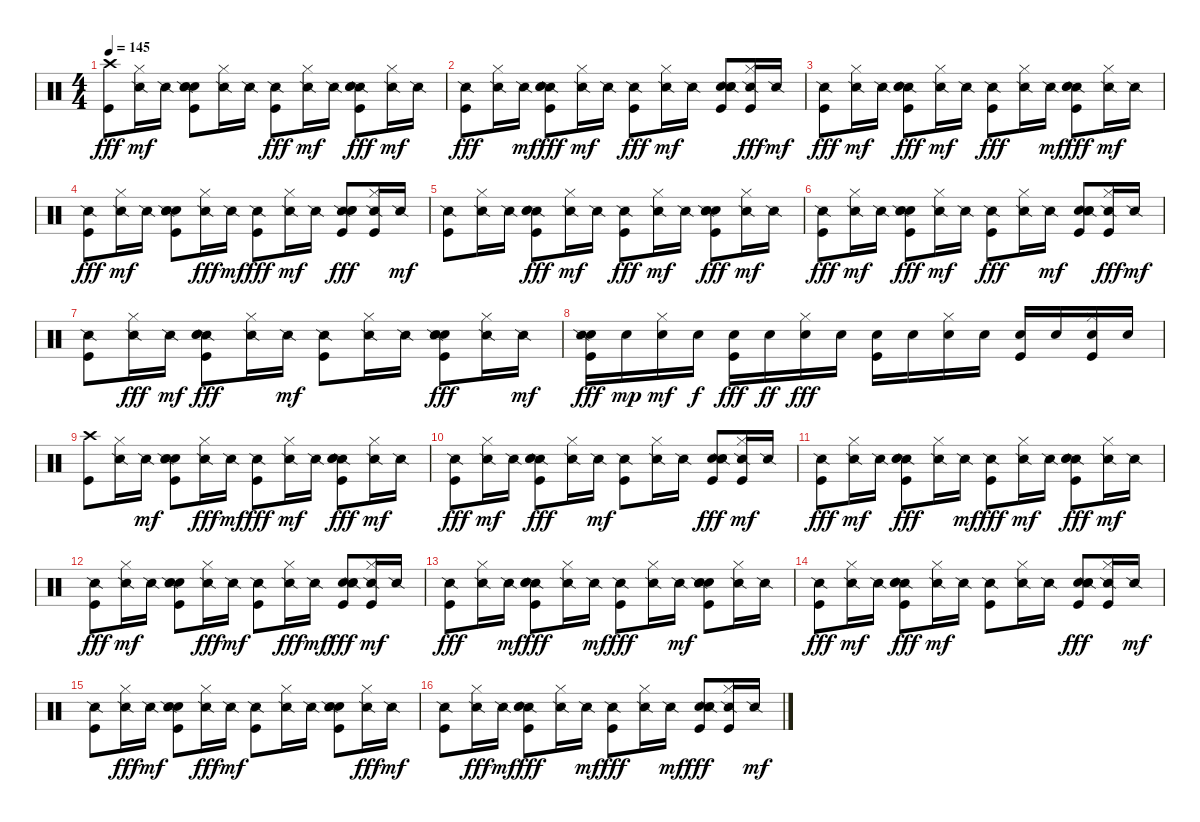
\track "" {instrument percussion}
\staff {score}
\articulation defaults
\ts (4 4)
\tempo 145
\clef neutral
\ks c
("Kick (hit)" "Crash high (hit)").8{dy fff} ("Hi-Hat (closed)" "Snare (side stick) 2").16{dy mf} "Snare (side stick) 2".16 ("Hand Clap (hit)" "Kick (hit)" "Electric Snare (hit)" "Snare (side stick) 2").8 ("Hi-Hat (closed)" "Snare (side stick) 2").16 "Snare (side stick) 2".16 ("Snare (side stick) 2" "Kick (hit)").8{dy fff} ("Hi-Hat (closed)" "Snare (side stick) 2").16{dy mf} "Snare (side stick) 2".16 ("Kick (hit)" "Snare (side stick) 2" "Hand Clap (hit)" "Electric Snare (hit)").8{dy fff} ("Hi-Hat (closed)" "Snare (side stick) 2").16{dy mf} "Snare (side stick) 2".16 |
("Snare (side stick) 2" "Kick (hit)").8{dy fff} ("Snare (side stick) 2" "Hi-Hat (closed)").16 "Snare (side stick) 2".16{dy mf} ("Snare (side stick) 2" "Kick (hit)" "Hand Clap (hit)" "Electric Snare (hit)").8{dy fff} ("Hi-Hat (closed)" "Snare (side stick) 2").16{dy mf} "Snare (side stick) 2".16 ("Snare (side stick) 2" "Kick (hit)").8{dy fff} ("Hi-Hat (closed)" "Snare (side stick) 2").16{dy mf} "Snare (side stick) 2".16 ("Electric Snare (hit)" "Kick (hit)" "Hand Clap (hit)" "Snare (side stick) 2").8 ("Kick (hit)" "Snare (side stick) 2" "Hi-Hat (closed)").16{dy fff} "Snare (side stick) 2".16{dy mf} |
("Snare (side stick) 2" "Kick (hit)").8{dy fff} ("Hi-Hat (closed)" "Snare (side stick) 2").16{dy mf} "Snare (side stick) 2".16 ("Snare (side stick) 2" "Electric Snare (hit)" "Hand Clap (hit)" "Kick (hit)").8{dy fff} ("Hi-Hat (closed)" "Snare (side stick) 2").16{dy mf} "Snare (side stick) 2".16 ("Snare (side stick) 2" "Kick (hit)").8{dy fff} ("Snare (side stick) 2" "Hi-Hat (closed)").16 "Snare (side stick) 2".16{dy mf} ("Snare (side stick) 2" "Kick (hit)" "Electric Snare (hit)" "Hand Clap (hit)").8{dy fff} ("Hi-Hat (closed)" "Snare (side stick) 2").16{dy mf} "Snare (side stick) 2".16 |
("Snare (side stick) 2" "Kick (hit)").8{dy fff} ("Hi-Hat (closed)" "Snare (side stick) 2").16{dy mf} "Snare (side stick) 2".16 ("Hand Clap (hit)" "Electric Snare (hit)" "Kick (hit)" "Snare (side stick) 2").8 ("Snare (side stick) 2" "Hi-Hat (closed)").16{dy fff} "Snare (side stick) 2".16{dy mf} ("Snare (side stick) 2" "Kick (hit)").8{dy fff} ("Hi-Hat (closed)" "Snare (side stick) 2").16{dy mf} "Snare (side stick) 2".16 ("Snare (side stick) 2" "Electric Snare (hit)" "Kick (hit)" "Hand Clap (hit)").8{dy fff} ("Snare (side stick) 2" "Hi-Hat (closed)" "Kick (hit)").16 "Snare (side stick) 2".16{dy mf} |
("Kick (hit)" "Snare (side stick) 2").8 ("Hi-Hat (closed)" "Snare (side stick) 2").16 "Snare (side stick) 2".16 ("Snare (side stick) 2" "Kick (hit)" "Electric Snare (hit)" "Hand Clap (hit)").8{dy fff} ("Hi-Hat (closed)" "Snare (side stick) 2").16{dy mf} "Snare (side stick) 2".16 ("Snare (side stick) 2" "Kick (hit)").8{dy fff} ("Hi-Hat (closed)" "Snare (side stick) 2").16{dy mf} "Snare (side stick) 2".16 ("Electric Snare (hit)" "Hand Clap (hit)" "Snare (side stick) 2" "Kick (hit)").8{dy fff} ("Hi-Hat (closed)" "Snare (side stick) 2").16{dy mf} "Snare (side stick) 2".16 |
("Snare (side stick) 2" "Kick (hit)").8{dy fff} ("Hi-Hat (closed)" "Snare (side stick) 2").16{dy mf} "Snare (side stick) 2".16 ("Electric Snare (hit)" "Snare (side stick) 2" "Hand Clap (hit)" "Kick (hit)").8{dy fff} ("Hi-Hat (closed)" "Snare (side stick) 2").16{dy mf} "Snare (side stick) 2".16 ("Snare (side stick) 2" "Kick (hit)").8{dy fff} ("Snare (side stick) 2" "Hi-Hat (closed)").16 "Snare (side stick) 2".16{dy mf} ("Kick (hit)" "Hand Clap (hit)" "Electric Snare (hit)" "Snare (side stick) 2").8 ("Snare (side stick) 2" "Kick (hit)" "Hi-Hat (closed)").16{dy fff} "Snare (side stick) 2".16{dy mf} |
("Kick (hit)" "Snare (side stick) 2").8 ("Snare (side stick) 2" "Hi-Hat (closed)").16{dy fff} "Snare (side stick) 2".16{dy mf} ("Snare (side stick) 2" "Electric Snare (hit)" "Kick (hit)" "Hand Clap (hit)").8{dy fff} ("Snare (side stick) 2" "Hi-Hat (closed)").16 "Snare (side stick) 2".16{dy mf} ("Kick (hit)" "Snare (side stick) 2").8 ("Hi-Hat (closed)" "Snare (side stick) 2").16 "Snare (side stick) 2".16 ("Hand Clap (hit)" "Electric Snare (hit)" "Snare (side stick) 2" "Kick (hit)").8{dy fff} ("Snare (side stick) 2" "Hi-Hat (closed)").16 "Snare (side stick) 2".16{dy mf} |
("Snare (hit) 2" "Snare (side stick) 2" "Kick (hit)").16{dy fff} "Snare (hit) 2".16{dy mp} ("Hi-Hat (closed)" "Snare (hit) 2").16{dy mf} "Snare (hit) 2".16{dy f} ("Kick (hit)" "Snare (hit) 2").16{dy fff} "Snare (hit) 2".16{dy ff} ("Snare (hit) 2" "Hi-Hat (closed)").16{dy fff} "Snare (hit) 2".16 ("Kick (hit)" "Snare (hit) 2").16 "Snare (hit) 2".16 ("Hi-Hat (closed)" "Snare (hit) 2").16 "Snare (hit) 2".16 ("Kick (hit)" "Snare (hit) 2").16 "Snare (hit) 2".16 ("Hi-Hat (closed)" "Snare (hit) 2" "Kick (hit)").16 "Snare (hit) 2".16 |
("Crash high (hit)" "Kick (hit)").8 ("Snare (side stick) 2" "Hi-Hat (closed)").16 "Snare (side stick) 2".16{dy mf} ("Electric Snare (hit)" "Kick (hit)" "Hand Clap (hit)" "Snare (side stick) 2").8 ("Snare (side stick) 2" "Hi-Hat (closed)").16{dy fff} "Snare (side stick) 2".16{dy mf} ("Snare (side stick) 2" "Kick (hit)").8{dy fff} ("Hi-Hat (closed)" "Snare (side stick) 2").16{dy mf} "Snare (side stick) 2".16 ("Snare (side stick) 2" "Electric Snare (hit)" "Kick (hit)" "Hand Clap (hit)").8{dy fff} ("Hi-Hat (closed)" "Snare (side stick) 2").16{dy mf} "Snare (side stick) 2".16 |
("Snare (side stick) 2" "Kick (hit)").8{dy fff} ("Hi-Hat (closed)" "Snare (side stick) 2").16{dy mf} "Snare (side stick) 2".16 ("Snare (side stick) 2" "Electric Snare (hit)" "Hand Clap (hit)" "Kick (hit)").8{dy fff} ("Snare (side stick) 2" "Hi-Hat (closed)").16 "Snare (side stick) 2".16{dy mf} ("Kick (hit)" "Snare (side stick) 2").8 ("Hi-Hat (closed)" "Snare (side stick) 2").16 "Snare (side stick) 2".16 ("Hand Clap (hit)" "Snare (side stick) 2" "Electric Snare (hit)" "Kick (hit)").8{dy fff} ("Hi-Hat (closed)" "Kick (hit)" "Snare (side stick) 2").16{dy mf} "Snare (side stick) 2".16 |
("Snare (side stick) 2" "Kick (hit)").8{dy fff} ("Hi-Hat (closed)" "Snare (side stick) 2").16{dy mf} "Snare (side stick) 2".16 ("Snare (side stick) 2" "Hand Clap (hit)" "Kick (hit)" "Electric Snare (hit)").8{dy fff} ("Snare (side stick) 2" "Hi-Hat (closed)").16 "Snare (side stick) 2".16{dy mf} ("Snare (side stick) 2" "Kick (hit)").8{dy fff} ("Hi-Hat (closed)" "Snare (side stick) 2").16{dy mf} "Snare (side stick) 2".16 ("Snare (side stick) 2" "Kick (hit)" "Electric Snare (hit)" "Hand Clap (hit)").8{dy fff} ("Hi-Hat (closed)" "Snare (side stick) 2").16{dy mf} "Snare (side stick) 2".16 |
("Snare (side stick) 2" "Kick (hit)").8{dy fff} ("Hi-Hat (closed)" "Snare (side stick) 2").16{dy mf} "Snare (side stick) 2".16 ("Kick (hit)" "Hand Clap (hit)" "Electric Snare (hit)" "Snare (side stick) 2").8 ("Snare (side stick) 2" "Hi-Hat (closed)").16{dy fff} "Snare (side stick) 2".16{dy mf} ("Kick (hit)" "Snare (side stick) 2").8 ("Snare (side stick) 2" "Hi-Hat (closed)").16{dy fff} "Snare (side stick) 2".16{dy mf} ("Kick (hit)" "Electric Snare (hit)" "Snare (side stick) 2" "Hand Clap (hit)").8{dy fff} ("Kick (hit)" "Hi-Hat (closed)" "Snare (side stick) 2").16{dy mf} "Snare (side stick) 2".16 |
("Snare (side stick) 2" "Kick (hit)").8{dy fff} ("Snare (side stick) 2" "Hi-Hat (closed)").16 "Snare (side stick) 2".16{dy mf} ("Snare (side stick) 2" "Hand Clap (hit)" "Electric Snare (hit)" "Kick (hit)").8{dy fff} ("Snare (side stick) 2" "Hi-Hat (closed)").16 "Snare (side stick) 2".16{dy mf} ("Snare (side stick) 2" "Kick (hit)").8{dy fff} ("Snare (side stick) 2" "Hi-Hat (closed)").16 "Snare (side stick) 2".16{dy mf} ("Hand Clap (hit)" "Kick (hit)" "Snare (side stick) 2" "Electric Snare (hit)").8 ("Hi-Hat (closed)" "Snare (side stick) 2").16 "Snare (side stick) 2".16 |
("Snare (side stick) 2" "Kick (hit)").8{dy fff} ("Hi-Hat (closed)" "Snare (side stick) 2").16{dy mf} "Snare (side stick) 2".16 ("Kick (hit)" "Snare (side stick) 2" "Hand Clap (hit)" "Electric Snare (hit)").8{dy fff} ("Hi-Hat (closed)" "Snare (side stick) 2").16{dy mf} "Snare (side stick) 2".16 ("Kick (hit)" "Snare (side stick) 2").8 ("Hi-Hat (closed)" "Snare (side stick) 2").16 "Snare (side stick) 2".16 ("Hand Clap (hit)" "Snare (side stick) 2" "Electric Snare (hit)" "Kick (hit)").8{dy fff} ("Kick (hit)" "Snare (side stick) 2" "Hi-Hat (closed)").16 "Snare (side stick) 2".16{dy mf} |
("Kick (hit)" "Snare (side stick) 2").8 ("Snare (side stick) 2" "Hi-Hat (closed)").16{dy fff} "Snare (side stick) 2".16{dy mf} ("Hand Clap (hit)" "Kick (hit)" "Snare (side stick) 2" "Electric Snare (hit)").8 ("Snare (side stick) 2" "Hi-Hat (closed)").16{dy fff} "Snare (side stick) 2".16{dy mf} ("Kick (hit)" "Snare (side stick) 2").8 ("Hi-Hat (closed)" "Snare (side stick) 2").16 "Snare (side stick) 2".16 ("Electric Snare (hit)" "Kick (hit)" "Hand Clap (hit)" "Snare (side stick) 2").8 ("Snare (side stick) 2" "Hi-Hat (closed)").16{dy fff} "Snare (side stick) 2".16{dy mf} |
("Kick (hit)" "Snare (side stick) 2").8 ("Snare (side stick) 2" "Hi-Hat (closed)").16{dy fff} "Snare (side stick) 2".16{dy mf} ("Snare (side stick) 2" "Kick (hit)" "Hand Clap (hit)" "Electric Snare (hit)").8{dy fff} ("Snare (side stick) 2" "Hi-Hat (closed)").16 "Snare (side stick) 2".16{dy mf} ("Snare (side stick) 2" "Kick (hit)").8{dy fff} ("Snare (side stick) 2" "Hi-Hat (closed)").16 "Snare (side stick) 2".16{dy mf} ("Electric Snare (hit)" "Kick (hit)" "Snare (side stick) 2" "Hand Clap (hit)").8{dy fff} ("Hi-Hat (closed)" "Snare (side stick) 2" "Kick (hit)").16 "Snare (side stick) 2".16{dy mf}
